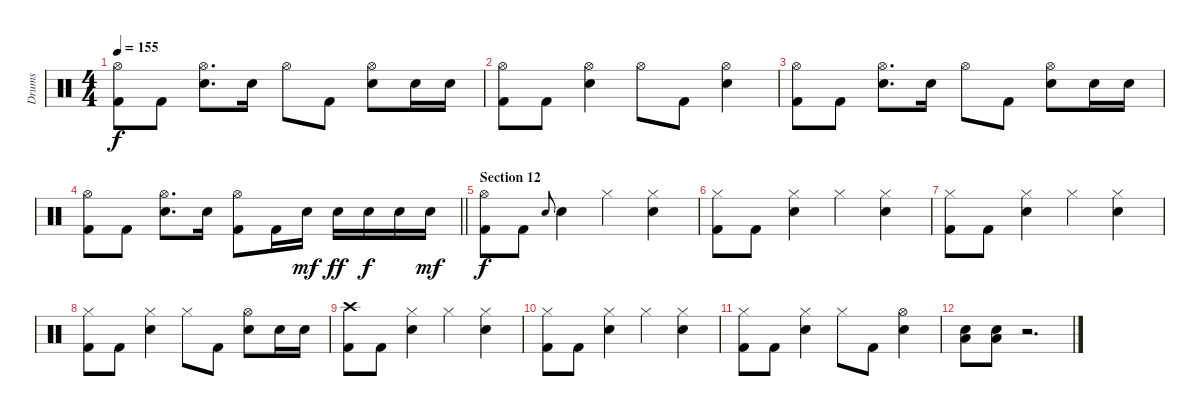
\track ("Drums" "Drums") {instrument percussion}
\staff {score}
\articulation defaults
\ts (4 4)
\tempo 155
\clef neutral
\ks c
("Hi-Hat (open)" "Kick (hit) 2").8{dy f} "Kick (hit) 2".8 ("Hi-Hat (open)" "Electric Snare (hit)").8{d} "Electric Snare (hit)".16 "Hi-Hat (open)".8 "Kick (hit) 2".8 ("Hi-Hat (open)" "Electric Snare (hit)").8 "Electric Snare (hit)".16 "Electric Snare (hit)".16 |
("Hi-Hat (open)" "Kick (hit) 2").8 "Kick (hit) 2".8 ("Hi-Hat (open)" "Electric Snare (hit)").4 "Hi-Hat (open)".8 "Kick (hit) 2".8 ("Hi-Hat (open)" "Electric Snare (hit)").4 |
("Hi-Hat (open)" "Kick (hit) 2").8 "Kick (hit) 2".8 ("Hi-Hat (open)" "Electric Snare (hit)").8{d} "Electric Snare (hit)".16 "Hi-Hat (open)".8 "Kick (hit) 2".8 ("Hi-Hat (open)" "Electric Snare (hit)").8 "Electric Snare (hit)".16 "Electric Snare (hit)".16 |
\barLineRight lightlight
("Hi-Hat (open)" "Kick (hit) 2").8 "Kick (hit) 2".8 ("Hi-Hat (open)" "Electric Snare (hit)").8{d} "Electric Snare (hit)".16 ("Hi-Hat (open)" "Kick (hit) 2").8 "Kick (hit) 2".16 "Electric Snare (hit)".16{dy mf} "Electric Snare (hit)".16{dy ff} "Electric Snare (hit)".16{dy f} "Electric Snare (hit)".16 "Electric Snare (hit)".16{dy mf} |
\section ("" "Section 12")
("Hi-Hat (open)" "Kick (hit) 2").8{dy f} "Kick (hit) 2".8 "Electric Snare (hit)".8{gr onbeat} "Electric Snare (hit)".4 "Hi-Hat (closed)".4 ("Hi-Hat (closed)" "Electric Snare (hit)").4 |
("Hi-Hat (closed)" "Kick (hit) 2").8 "Kick (hit) 2".8 ("Hi-Hat (closed)" "Electric Snare (hit)").4 "Hi-Hat (closed)".4 ("Hi-Hat (closed)" "Electric Snare (hit)").4 |
("Hi-Hat (closed)" "Kick (hit) 2").8 "Kick (hit) 2".8 ("Hi-Hat (closed)" "Electric Snare (hit)").4 "Hi-Hat (closed)".4 ("Hi-Hat (closed)" "Electric Snare (hit)").4 |
("Hi-Hat (closed)" "Kick (hit) 2").8 "Kick (hit) 2".8 ("Hi-Hat (closed)" "Electric Snare (hit)").4 "Hi-Hat (closed)".8 "Kick (hit) 2".8 ("Hi-Hat (open)" "Electric Snare (hit)").8 "Electric Snare (hit)".16 "Electric Snare (hit)".16 |
("Crash high (hit)" "Kick (hit) 2").8 "Kick (hit) 2".8 ("Hi-Hat (closed)" "Electric Snare (hit)").4 "Hi-Hat (closed)".4 ("Hi-Hat (closed)" "Electric Snare (hit)").4 |
("Hi-Hat (closed)" "Kick (hit) 2").8 "Kick (hit) 2".8 ("Hi-Hat (closed)" "Electric Snare (hit)").4 "Hi-Hat (closed)".4 ("Hi-Hat (closed)" "Electric Snare (hit)").4 |
("Hi-Hat (closed)" "Kick (hit) 2").8 "Kick (hit) 2".8 ("Hi-Hat (closed)" "Electric Snare (hit)").4 "Hi-Hat (closed)".8 "Kick (hit) 2".8 ("Hi-Hat (open)" "Electric Snare (hit)").4 |
("Low Floor Tom (hit)" "Electric Snare (hit)").8 ("Low Floor Tom (hit)" "Electric Snare (hit)").8 r.2{d}
